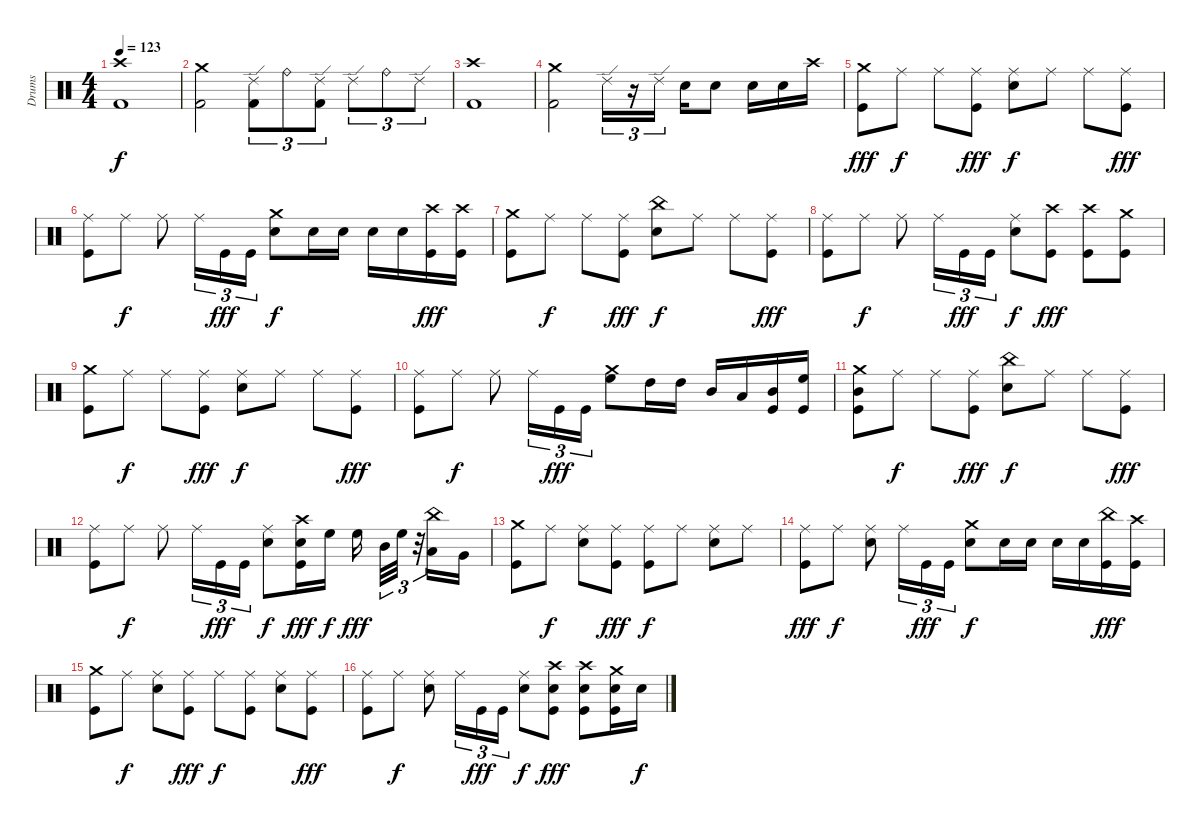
\track ("Drums" "Drums") {instrument percussion}
\staff {score}
\articulation defaults
\ts (4 4)
\tempo 123
\clef neutral
\ks c
("Crash high (hit)" "Kick (hit) 2").1{dy f} |
("Crash medium (hit)" "Kick (hit) 2").2 ("Ride (edge) 2" "Kick (hit) 2").8{tu (3 2)} "Ride (bell)".8{tu (3 2)} ("Ride (edge) 2" "Kick (hit) 2").8{tu (3 2)} "Ride (edge) 2".8{tu (3 2)} "Ride (bell)".8{tu (3 2)} "Ride (edge) 2".8{tu (3 2)} |
("Crash high (hit)" "Kick (hit) 2").1 |
("Crash medium (hit)" "Kick (hit) 2").2 "Ride (edge) 2".16{tu (3 2)} r.16{tu (3 2)} "Ride (edge) 2".16{tu (3 2)} "Snare (hit) 2".16 "Snare (hit) 2".8 "Snare (hit) 2".16 "Snare (hit) 2".16 "Crash high (hit)".16 |
("Crash medium (hit)" "Kick (hit)").8{dy fff} "Ride (middle)".8{dy f} "Ride (middle)".8 ("Ride (middle)" "Kick (hit)").8{dy fff} ("Ride (middle)" "Electric Snare (hit)").8{dy f} "Ride (middle)".8 "Ride (middle)".8 ("Ride (middle)" "Kick (hit)").8{dy fff} |
("Ride (middle)" "Kick (hit)").8 "Ride (middle)".8{dy f} "Ride (middle)".8 "Ride (middle)".16{tu (3 2)} "Kick (hit)".16{tu (3 2) dy fff} "Kick (hit)".16{tu (3 2)} ("Crash medium (hit)" "Electric Snare (hit)").8{dy f} "Electric Snare (hit)".16 "Electric Snare (hit)".16 "Electric Snare (hit)".16 "Electric Snare (hit)".16 ("Crash high (hit)" "Kick (hit)").16{dy fff} ("Crash high (hit)" "Kick (hit)").16 |
("Crash medium (hit)" "Kick (hit)").8 "Ride (middle)".8{dy f} "Ride (middle)".8 ("Ride (middle)" "Kick (hit)").8{dy fff} ("China (hit)" "Electric Snare (hit)").8{dy f} "Ride (middle)".8 "Ride (middle)".8 ("Ride (middle)" "Kick (hit)").8{dy fff} |
("Ride (middle)" "Kick (hit)").8 "Ride (middle)".8{dy f} "Ride (middle)".8 "Ride (middle)".16{tu (3 2)} "Kick (hit)".16{tu (3 2) dy fff} "Kick (hit)".16{tu (3 2)} ("Ride (middle)" "Electric Snare (hit)").8{dy f} ("Crash high (hit)" "Kick (hit)").8{dy fff} ("Crash high (hit)" "Kick (hit)").8 ("Crash medium (hit)" "Kick (hit)").8 |
("Crash medium (hit)" "Kick (hit)").8 "Ride (middle)".8{dy f} "Ride (middle)".8 ("Ride (middle)" "Kick (hit)").8{dy fff} ("Ride (middle)" "Electric Snare (hit)").8{dy f} "Ride (middle)".8 "Ride (middle)".8 ("Ride (middle)" "Kick (hit)").8{dy fff} |
("Ride (middle)" "Kick (hit)").8 "Ride (middle)".8{dy f} "Ride (middle)".8 "Ride (middle)".16{tu (3 2)} "Kick (hit)".16{tu (3 2) dy fff} "Kick (hit)".16{tu (3 2)} ("Crash medium (hit)" "High Floor Tom (hit)").8 "High Tom (hit)".16 "High Tom (hit)".16 "Mid Tom (hit)".16 "Low Tom (hit)".16 ("Mid Tom (hit)" "Kick (hit)").16 ("High Floor Tom (hit)" "Kick (hit)").16 |
("Crash medium (hit)" "Mid Tom (hit)" "Kick (hit)").8 "Ride (middle)".8{dy f} "Ride (middle)".8 ("Ride (middle)" "Kick (hit)").8{dy fff} ("China (hit)" "Electric Snare (hit)").8{dy f} "Ride (middle)".8 "Ride (middle)".8 ("Ride (middle)" "Kick (hit)").8{dy fff} |
("Ride (middle)" "Kick (hit)").8 "Ride (middle)".8{dy f} "Ride (middle)".8 "Ride (middle)".16{tu (3 2)} "Kick (hit)".16{tu (3 2) dy fff} "Kick (hit)".16{tu (3 2)} ("Ride (middle)" "Snare (hit) 2").8{dy f} ("Crash high (hit)" "Snare (hit) 2" "Kick (hit)").16{dy fff} "High Floor Tom (hit)".16{dy f} "High Floor Tom (hit)".16{dy fff} "Mid Tom (hit)".32{tu (3 2)} "High Floor Tom (hit)".32{tu (3 2)} r.32{tu (3 2)} ("China (hit)" "Low Tom (hit)").16 "Very Low Tom (hit)".16 |
("Crash medium (hit)" "Kick (hit)").8 "Ride (middle)".8{dy f} ("Ride (middle)" "Snare (hit) 2").8 ("Ride (middle)" "Kick (hit)").8{dy fff} ("Ride (middle)" "Kick (hit)").8{dy f} "Ride (middle)".8 ("Ride (middle)" "Snare (hit) 2").8 "Ride (middle)".8 |
("Ride (middle)" "Kick (hit)").8{dy fff} "Ride (middle)".8{dy f} ("Ride (middle)" "Snare (hit) 2").8 "Ride (middle)".16{tu (3 2)} "Kick (hit)".16{tu (3 2) dy fff} "Kick (hit)".16{tu (3 2)} ("Crash medium (hit)" "Electric Snare (hit)").8{dy f} "Electric Snare (hit)".16 "Electric Snare (hit)".16 "Electric Snare (hit)".16 "Electric Snare (hit)".16 ("China (hit)" "Kick (hit)").16{dy fff} ("Crash high (hit)" "Kick (hit)").16 |
("Crash medium (hit)" "Kick (hit)").8 "Ride (middle)".8{dy f} ("Ride (middle)" "Electric Snare (hit)").8 ("Ride (middle)" "Kick (hit)").8{dy fff} "Ride (middle)".8{dy f} ("Ride (middle)" "Kick (hit)").8 ("Ride (middle)" "Electric Snare (hit)").8 ("Ride (middle)" "Kick (hit)").8{dy fff} |
("Ride (middle)" "Kick (hit)").8 "Ride (middle)".8{dy f} ("Ride (middle)" "Electric Snare (hit)").8 "Ride (middle)".16{tu (3 2)} "Kick (hit)".16{tu (3 2) dy fff} "Kick (hit)".16{tu (3 2)} ("Ride (middle)" "Snare (hit) 2").8{dy f} ("Crash high (hit)" "Snare (hit) 2" "Kick (hit)").8{dy fff} ("Crash high (hit)" "Snare (hit) 2" "Kick (hit)").8 ("Crash medium (hit)" "Snare (hit) 2" "Kick (hit)").16 "Snare (hit) 2".16{dy f}
